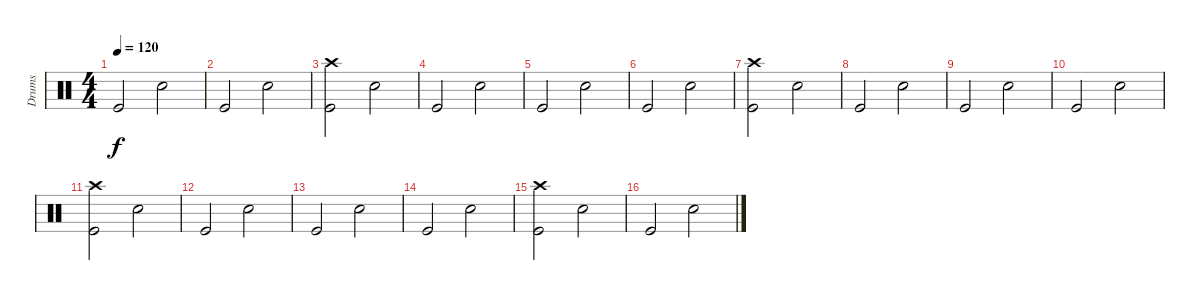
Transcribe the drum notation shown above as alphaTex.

\track ("Drums" "Drums") {instrument percussion}
\staff {score}
\articulation defaults
\ts (4 4)
\tempo 120
\clef neutral
\ks c "Kick (hit)".2{dy f} "Snare (hit) 2".2
|
"Kick (hit)".2 "Snare (hit) 2".2 |
("Crash high (hit)" "Kick (hit)").2 "Snare (hit) 2".2 |
"Kick (hit)".2 "Snare (hit) 2".2 |
"Kick (hit)".2 "Snare (hit) 2".2 |
"Kick (hit)".2 "Snare (hit) 2".2 |
("Crash high (hit)" "Kick (hit)").2 "Snare (hit) 2".2 |
"Kick (hit)".2 "Snare (hit) 2".2 |
"Kick (hit)".2 "Snare (hit) 2".2 |
"Kick (hit)".2 "Snare (hit) 2".2 |
("Crash high (hit)" "Kick (hit)").2 "Snare (hit) 2".2 |
"Kick (hit)".2 "Snare (hit) 2".2 |
"Kick (hit)".2 "Snare (hit) 2".2 |
"Kick (hit)".2 "Snare (hit) 2".2 |
("Crash high (hit)" "Kick (hit)").2 "Snare (hit) 2".2 |
"Kick (hit)".2 "Snare (hit) 2".2
